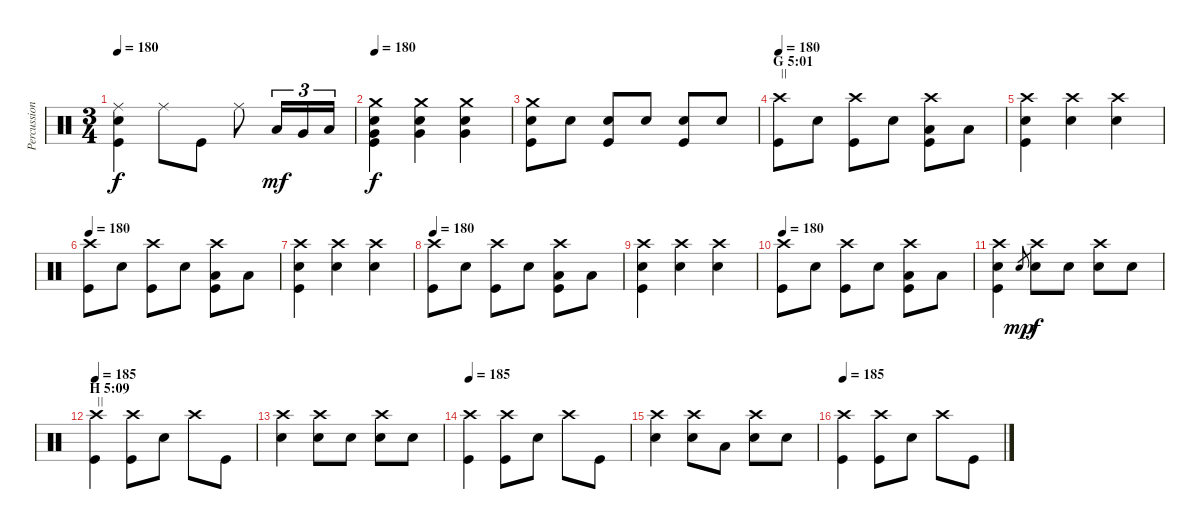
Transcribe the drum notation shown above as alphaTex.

\track ("Percussion" "Percussion") {instrument percussion}
\staff {score}
\articulation defaults
\ts (3 4)
\tempo 180
\clef neutral
\ks c
("Ride (middle)" "Electric Snare (hit)" "Kick (hit)").4{dy f} "Ride (middle)".8 "Kick (hit)".8 "Ride (middle)".8 "Low Tom (hit)".16{tu (3 2) dy mf} "Very Low Tom (hit)".16{tu (3 2)} "Low Floor Tom (hit)".16{tu (3 2)} |
\tempo 180
("Crash medium (hit)" "Electric Snare (hit)" "Very Low Tom (hit)" "Kick (hit)").4{dy f} ("Crash medium (hit)" "Electric Snare (hit)" "Very Low Tom (hit)").4 ("Crash medium (hit)" "Electric Snare (hit)" "Very Low Tom (hit)").4 |
("Crash medium (hit)" "Electric Snare (hit)" "Kick (hit)").8 "Electric Snare (hit)".8 ("Electric Snare (hit)" "Kick (hit)").8 "Electric Snare (hit)".8 ("Electric Snare (hit)" "Kick (hit)").8 "Electric Snare (hit)".8 |
\section ("" "G 5:01")
\tempo 180
("Crash high (hit)" "Kick (hit)").8{txt "||"} "Electric Snare (hit)".8 ("Crash high (hit)" "Kick (hit)").8 "Electric Snare (hit)".8 ("Crash high (hit)" "Low Floor Tom (hit)" "Kick (hit)").8 "Low Floor Tom (hit)".8 |
("Crash high (hit)" "Electric Snare (hit)" "Kick (hit)").4 ("Crash high (hit)" "Electric Snare (hit)").4 ("Crash high (hit)" "Electric Snare (hit)").4 |
\tempo 180
("Crash high (hit)" "Kick (hit)").8 "Electric Snare (hit)".8 ("Crash high (hit)" "Kick (hit)").8 "Electric Snare (hit)".8 ("Crash high (hit)" "Low Floor Tom (hit)" "Kick (hit)").8 "Low Floor Tom (hit)".8 |
("Crash high (hit)" "Electric Snare (hit)" "Kick (hit)").4 ("Crash high (hit)" "Electric Snare (hit)").4 ("Crash high (hit)" "Electric Snare (hit)").4 |
\tempo 180
("Crash high (hit)" "Kick (hit)").8 "Electric Snare (hit)".8 ("Crash high (hit)" "Kick (hit)").8 "Electric Snare (hit)".8 ("Crash high (hit)" "Low Floor Tom (hit)" "Kick (hit)").8 "Low Floor Tom (hit)".8 |
("Crash high (hit)" "Electric Snare (hit)" "Kick (hit)").4 ("Crash high (hit)" "Electric Snare (hit)").4 ("Crash high (hit)" "Electric Snare (hit)").4 |
\tempo 180
("Crash high (hit)" "Kick (hit)").8 "Electric Snare (hit)".8 ("Crash high (hit)" "Kick (hit)").8 "Electric Snare (hit)".8 ("Crash high (hit)" "Low Floor Tom (hit)" "Kick (hit)").8 "Low Floor Tom (hit)".8 |
("Crash high (hit)" "Electric Snare (hit)" "Kick (hit)").4 "Electric Snare (hit)".8{gr dy mp} ("Crash high (hit)" "Electric Snare (hit)").8{dy f} "Electric Snare (hit)".8 ("Crash high (hit)" "Electric Snare (hit)").8 "Electric Snare (hit)".8 |
\section ("" "H 5:09")
\tempo 185
("Crash high (hit)" "Kick (hit)").4{txt "||"} ("Crash high (hit)" "Kick (hit)").8 "Electric Snare (hit)".8 "Crash high (hit)".8 "Kick (hit)".8 |
("Crash high (hit)" "Electric Snare (hit)").4 ("Crash high (hit)" "Electric Snare (hit)").8 "Electric Snare (hit)".8 ("Crash high (hit)" "Electric Snare (hit)").8 "Electric Snare (hit)".8 |
\tempo 185
("Crash high (hit)" "Kick (hit)").4 ("Crash high (hit)" "Kick (hit)").8 "Electric Snare (hit)".8 "Crash high (hit)".8 "Kick (hit)".8 |
("Crash high (hit)" "Electric Snare (hit)").4 ("Crash high (hit)" "Electric Snare (hit)").8 "Low Tom (hit)".8 ("Crash high (hit)" "Electric Snare (hit)").8 "Electric Snare (hit)".8 |
\tempo 185
("Crash high (hit)" "Kick (hit)").4 ("Crash high (hit)" "Kick (hit)").8 "Electric Snare (hit)".8 "Crash high (hit)".8 "Kick (hit)".8
